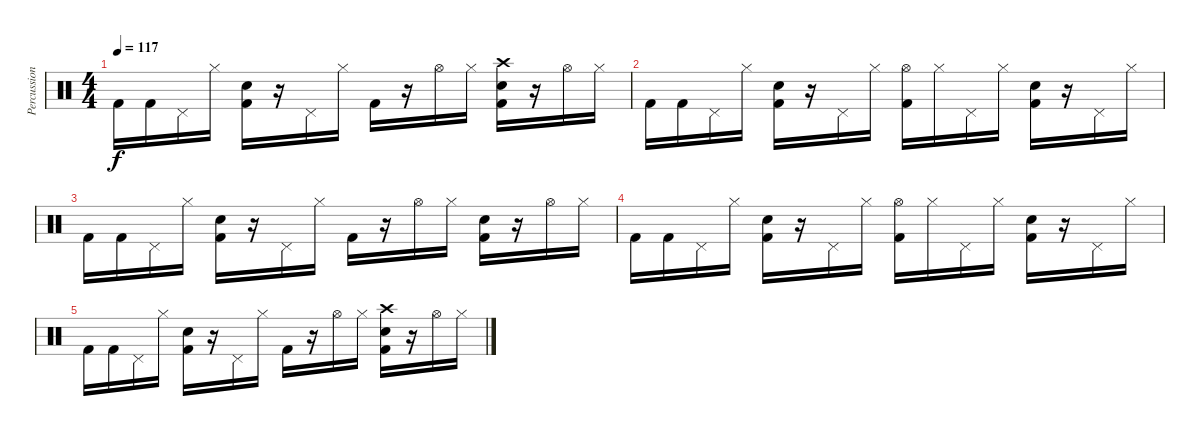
\track ("Percussion" "Percussion") {instrument percussion}
\staff {score}
\articulation defaults
\ts (4 4)
\tempo 117
\clef neutral
\ks c "Kick (hit) 2".16{dy f} "Kick (hit) 2".16 "Pedal Hi-Hat (hit)".16 "Hi-Hat (closed)".16
("Snare (hit) 2" "Kick (hit) 2").16 r.16 "Pedal Hi-Hat (hit)".16 "Hi-Hat (closed)".16 "Kick (hit) 2".16 r.16 "Hi-Hat (open)".16 "Hi-Hat (closed)".16 ("Crash high (hit)" "Snare (hit) 2" "Kick (hit) 2").16 r.16 "Hi-Hat (open)".16 "Hi-Hat (closed)".16 |
"Kick (hit) 2".16 "Kick (hit) 2".16 "Pedal Hi-Hat (hit)".16 "Hi-Hat (closed)".16 ("Snare (hit) 2" "Kick (hit) 2").16 r.16 "Pedal Hi-Hat (hit)".16 "Hi-Hat (closed)".16 ("Hi-Hat (open)" "Kick (hit) 2").16 "Hi-Hat (closed)".16 "Pedal Hi-Hat (hit)".16 "Hi-Hat (closed)".16 ("Snare (hit) 2" "Kick (hit) 2").16 r.16 "Pedal Hi-Hat (hit)".16 "Hi-Hat (closed)".16 |
"Kick (hit) 2".16 "Kick (hit) 2".16 "Pedal Hi-Hat (hit)".16 "Hi-Hat (closed)".16 ("Snare (hit) 2" "Kick (hit) 2").16 r.16 "Pedal Hi-Hat (hit)".16 "Hi-Hat (closed)".16 "Kick (hit) 2".16 r.16 "Hi-Hat (open)".16 "Hi-Hat (closed)".16 ("Snare (hit) 2" "Kick (hit) 2").16 r.16 "Hi-Hat (open)".16 "Hi-Hat (closed)".16 |
"Kick (hit) 2".16 "Kick (hit) 2".16 "Pedal Hi-Hat (hit)".16 "Hi-Hat (closed)".16 ("Snare (hit) 2" "Kick (hit) 2").16 r.16 "Pedal Hi-Hat (hit)".16 "Hi-Hat (closed)".16 ("Hi-Hat (open)" "Kick (hit) 2").16 "Hi-Hat (closed)".16 "Pedal Hi-Hat (hit)".16 "Hi-Hat (closed)".16 ("Snare (hit) 2" "Kick (hit) 2").16 r.16 "Pedal Hi-Hat (hit)".16 "Hi-Hat (closed)".16 |
"Kick (hit) 2".16 "Kick (hit) 2".16 "Pedal Hi-Hat (hit)".16 "Hi-Hat (closed)".16 ("Snare (hit) 2" "Kick (hit) 2").16 r.16 "Pedal Hi-Hat (hit)".16 "Hi-Hat (closed)".16 "Kick (hit) 2".16 r.16 "Hi-Hat (open)".16 "Hi-Hat (closed)".16 ("Crash high (hit)" "Snare (hit) 2" "Kick (hit) 2").16 r.16 "Hi-Hat (open)".16 "Hi-Hat (closed)".16
